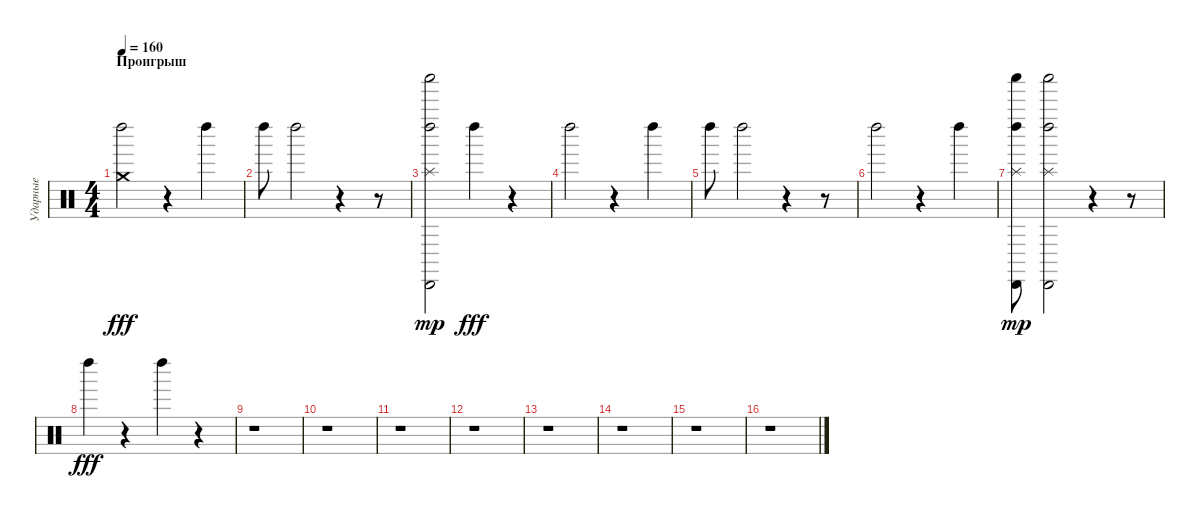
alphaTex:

\track ("Ударные" "Ударные") {instrument percussion}
\staff {score}
\articulation defaults
\ts (4 4)
\section ("" "Проигрыш")
\tempo 160
\clef neutral
\ks c
("Left Maraca (hit)" "Crash medium (hit)").2{dy fff} r.4 "Left Maraca (hit)".4 |
"Left Maraca (hit)".8 "Left Maraca (hit)".2 r.4 r.8 |
("Left Maraca (hit)" "Cabasa (hit)" "Shaker (hit)" "Splash (hit)").2{dy mp} "Left Maraca (hit)".4{dy fff} r.4 |
"Left Maraca (hit)".2 r.4 "Left Maraca (hit)".4 |
"Left Maraca (hit)".8 "Left Maraca (hit)".2 r.4 r.8 |
"Left Maraca (hit)".2 r.4 "Left Maraca (hit)".4 |
("Left Maraca (hit)" "Cabasa (hit)" "Shaker (hit)" "Splash (hit)").8{dy mp} ("Left Maraca (hit)" "Cabasa (hit)" "Shaker (hit)" "Splash (hit)").2 r.4 r.8 |
"Left Maraca (hit)".4{dy fff} r.4 "Left Maraca (hit)".4 r.4 |
r.1 |
r.1 |
r.1 |
r.1 |
r.1 |
r.1 |
r.1 |
r.1
